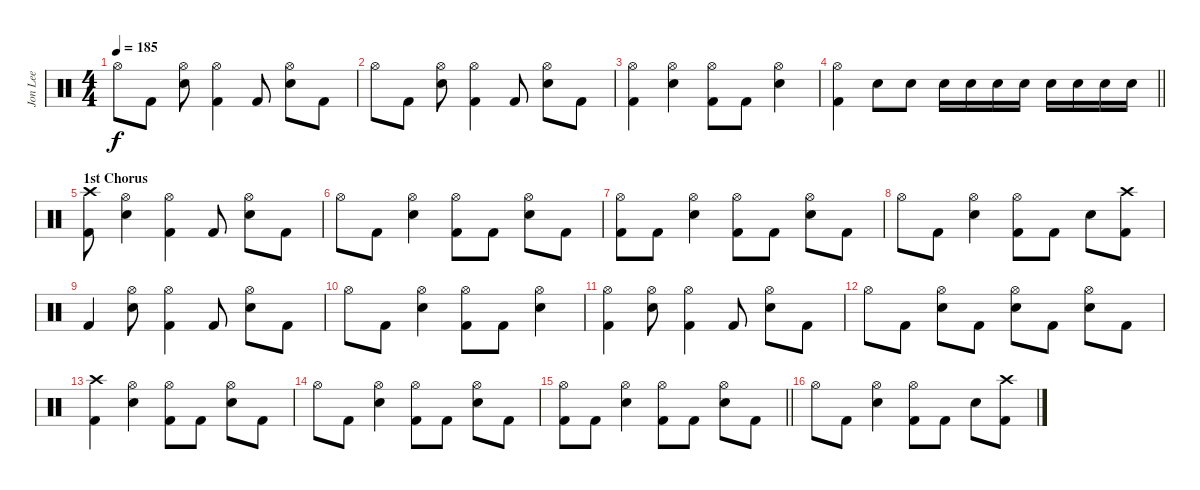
\track ("Jon Lee" "Jon Lee") {instrument percussion bank 10}
\staff {score}
\articulation defaults
\ts (4 4)
\tempo 185
\clef neutral
\ks c "Hi-Hat (open)".8{dy f} "Kick (hit) 2".8
("Snare (hit) 2" "Hi-Hat (open)").8 ("Kick (hit) 2" "Hi-Hat (open)").4 "Kick (hit) 2".8 ("Snare (hit) 2" "Hi-Hat (open)").8 "Kick (hit) 2".8 |
"Hi-Hat (open)".8 "Kick (hit) 2".8 ("Snare (hit) 2" "Hi-Hat (open)").8 ("Kick (hit) 2" "Hi-Hat (open)").4 "Kick (hit) 2".8 ("Snare (hit) 2" "Hi-Hat (open)").8 "Kick (hit) 2".8 |
("Kick (hit) 2" "Hi-Hat (open)").4 ("Snare (hit) 2" "Hi-Hat (open)").4 ("Hi-Hat (open)" "Kick (hit) 2").8 "Kick (hit) 2".8 ("Hi-Hat (open)" "Snare (hit) 2").4 |
\barLineRight lightlight
("Hi-Hat (open)" "Kick (hit) 2").4 "Snare (hit) 2".8 "Snare (hit) 2".8 "Snare (hit) 2".16 "Snare (hit) 2".16 "Snare (hit) 2".16 "Snare (hit) 2".16 "Snare (hit) 2".16 "Snare (hit) 2".16 "Snare (hit) 2".16 "Snare (hit) 2".16 |
\section ("" "1st Chorus")
("Kick (hit) 2" "Crash high (hit)").8 ("Snare (hit) 2" "Hi-Hat (open)").4 ("Hi-Hat (open)" "Kick (hit) 2").4 "Kick (hit) 2".8 ("Snare (hit) 2" "Hi-Hat (open)").8 "Kick (hit) 2".8 |
"Hi-Hat (open)".8 "Kick (hit) 2".8 ("Snare (hit) 2" "Hi-Hat (open)").4 ("Kick (hit) 2" "Hi-Hat (open)").8 "Kick (hit) 2".8 ("Snare (hit) 2" "Hi-Hat (open)").8 "Kick (hit) 2".8 |
("Hi-Hat (open)" "Kick (hit) 2").8 "Kick (hit) 2".8 ("Snare (hit) 2" "Hi-Hat (open)").4 ("Kick (hit) 2" "Hi-Hat (open)").8 "Kick (hit) 2".8 ("Snare (hit) 2" "Hi-Hat (open)").8 "Kick (hit) 2".8 |
"Hi-Hat (open)".8 "Kick (hit) 2".8 ("Snare (hit) 2" "Hi-Hat (open)").4 ("Kick (hit) 2" "Hi-Hat (open)").8 "Kick (hit) 2".8 "Snare (hit) 2".8 ("Kick (hit) 2" "Crash high (hit)").8 |
"Kick (hit) 2".4 ("Snare (hit) 2" "Hi-Hat (open)").8 ("Kick (hit) 2" "Hi-Hat (open)").4 "Kick (hit) 2".8 ("Snare (hit) 2" "Hi-Hat (open)").8 "Kick (hit) 2".8 |
"Hi-Hat (open)".8 "Kick (hit) 2".8 ("Snare (hit) 2" "Hi-Hat (open)").4 ("Kick (hit) 2" "Hi-Hat (open)").8 "Kick (hit) 2".8 ("Snare (hit) 2" "Hi-Hat (open)").4 |
("Hi-Hat (open)" "Kick (hit) 2").4 ("Snare (hit) 2" "Hi-Hat (open)").8 ("Kick (hit) 2" "Hi-Hat (open)").4 "Kick (hit) 2".8 ("Snare (hit) 2" "Hi-Hat (open)").8 "Kick (hit) 2".8 |
"Hi-Hat (open)".8 "Kick (hit) 2".8 ("Snare (hit) 2" "Hi-Hat (open)").8 "Kick (hit) 2".8 ("Snare (hit) 2" "Hi-Hat (open)").8 "Kick (hit) 2".8 ("Snare (hit) 2" "Hi-Hat (open)").8 "Kick (hit) 2".8 |
("Kick (hit) 2" "Crash high (hit)").4 ("Snare (hit) 2" "Hi-Hat (open)").4 ("Hi-Hat (open)" "Kick (hit) 2").8 "Kick (hit) 2".8 ("Snare (hit) 2" "Hi-Hat (open)").8 "Kick (hit) 2".8 |
"Hi-Hat (open)".8 "Kick (hit) 2".8 ("Snare (hit) 2" "Hi-Hat (open)").4 ("Kick (hit) 2" "Hi-Hat (open)").8 "Kick (hit) 2".8 ("Snare (hit) 2" "Hi-Hat (open)").8 "Kick (hit) 2".8 |
\barLineRight lightlight
("Hi-Hat (open)" "Kick (hit) 2").8 "Kick (hit) 2".8 ("Snare (hit) 2" "Hi-Hat (open)").4 ("Kick (hit) 2" "Hi-Hat (open)").8 "Kick (hit) 2".8 ("Snare (hit) 2" "Hi-Hat (open)").8 "Kick (hit) 2".8 |
"Hi-Hat (open)".8 "Kick (hit) 2".8 ("Snare (hit) 2" "Hi-Hat (open)").4 ("Kick (hit) 2" "Hi-Hat (open)").8 "Kick (hit) 2".8 "Snare (hit) 2".8 ("Kick (hit) 2" "Crash high (hit)").8
